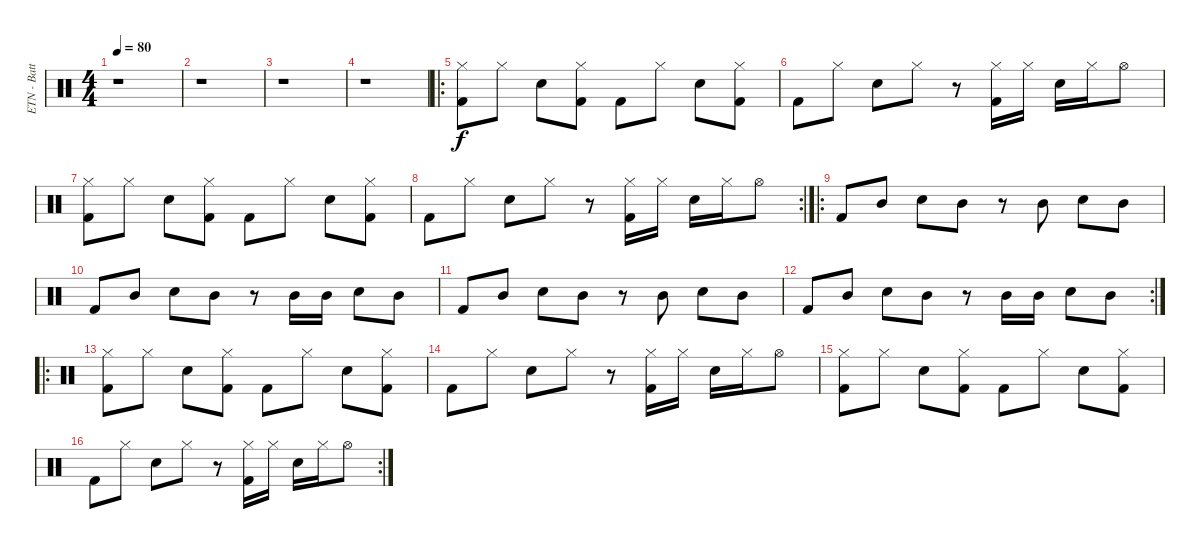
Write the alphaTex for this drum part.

\track ("ETN - Batterie" "ETN - Batt") {instrument percussion}
\staff {score}
\articulation defaults
\ts (4 4)
\tempo 80
\clef neutral
\ks c
r.1{dy f} |
r.1 |
r.1 |
r.1 |
\ro
("Hi-Hat (closed)" "Kick (hit) 2").8 "Hi-Hat (closed)".8 "Snare (hit) 2".8 ("Hi-Hat (closed)" "Kick (hit) 2").8 "Kick (hit) 2".8 "Hi-Hat (closed)".8 "Snare (hit) 2".8 ("Hi-Hat (closed)" "Kick (hit) 2").8 |
"Kick (hit) 2".8 "Hi-Hat (closed)".8 "Snare (hit) 2".8 "Hi-Hat (closed)".8 r.8 ("Hi-Hat (closed)" "Kick (hit) 2").16 "Hi-Hat (closed)".16 "Snare (hit) 2".16 "Hi-Hat (closed)".16 "Hi-Hat (open)".8 |
("Hi-Hat (closed)" "Kick (hit) 2").8 "Hi-Hat (closed)".8 "Snare (hit) 2".8 ("Hi-Hat (closed)" "Kick (hit) 2").8 "Kick (hit) 2".8 "Hi-Hat (closed)".8 "Snare (hit) 2".8 ("Hi-Hat (closed)" "Kick (hit) 2").8 |
\rc 2 "Kick (hit) 2".8 "Hi-Hat (closed)".8 "Snare (hit) 2".8 "Hi-Hat (closed)".8
r.8 ("Hi-Hat (closed)" "Kick (hit) 2").16 "Hi-Hat (closed)".16 "Snare (hit) 2".16 "Hi-Hat (closed)".16 "Hi-Hat (open)".8 |
\ro "Kick (hit) 2".8 "Mid Tom (hit)".8 "Snare (hit) 2".8 "Mid Tom (hit)".8
r.8 "Mid Tom (hit)".8 "Snare (hit) 2".8 "Mid Tom (hit)".8 |
"Kick (hit) 2".8 "Mid Tom (hit)".8 "Snare (hit) 2".8 "Mid Tom (hit)".8 r.8 "Mid Tom (hit)".16 "Mid Tom (hit)".16 "Snare (hit) 2".8 "Mid Tom (hit)".8 |
"Kick (hit) 2".8 "Mid Tom (hit)".8 "Snare (hit) 2".8 "Mid Tom (hit)".8 r.8 "Mid Tom (hit)".8 "Snare (hit) 2".8 "Mid Tom (hit)".8 |
\rc 2 "Kick (hit) 2".8 "Mid Tom (hit)".8 "Snare (hit) 2".8 "Mid Tom (hit)".8
r.8 "Mid Tom (hit)".16 "Mid Tom (hit)".16 "Snare (hit) 2".8 "Mid Tom (hit)".8 |
\ro
("Hi-Hat (closed)" "Kick (hit) 2").8 "Hi-Hat (closed)".8 "Snare (hit) 2".8 ("Hi-Hat (closed)" "Kick (hit) 2").8 "Kick (hit) 2".8 "Hi-Hat (closed)".8 "Snare (hit) 2".8 ("Hi-Hat (closed)" "Kick (hit) 2").8 |
"Kick (hit) 2".8 "Hi-Hat (closed)".8 "Snare (hit) 2".8 "Hi-Hat (closed)".8 r.8 ("Hi-Hat (closed)" "Kick (hit) 2").16 "Hi-Hat (closed)".16 "Snare (hit) 2".16 "Hi-Hat (closed)".16 "Hi-Hat (open)".8 |
("Hi-Hat (closed)" "Kick (hit) 2").8 "Hi-Hat (closed)".8 "Snare (hit) 2".8 ("Hi-Hat (closed)" "Kick (hit) 2").8 "Kick (hit) 2".8 "Hi-Hat (closed)".8 "Snare (hit) 2".8 ("Hi-Hat (closed)" "Kick (hit) 2").8 |
\rc 2 "Kick (hit) 2".8 "Hi-Hat (closed)".8 "Snare (hit) 2".8 "Hi-Hat (closed)".8
r.8 ("Hi-Hat (closed)" "Kick (hit) 2").16 "Hi-Hat (closed)".16 "Snare (hit) 2".16 "Hi-Hat (closed)".16 "Hi-Hat (open)".8
